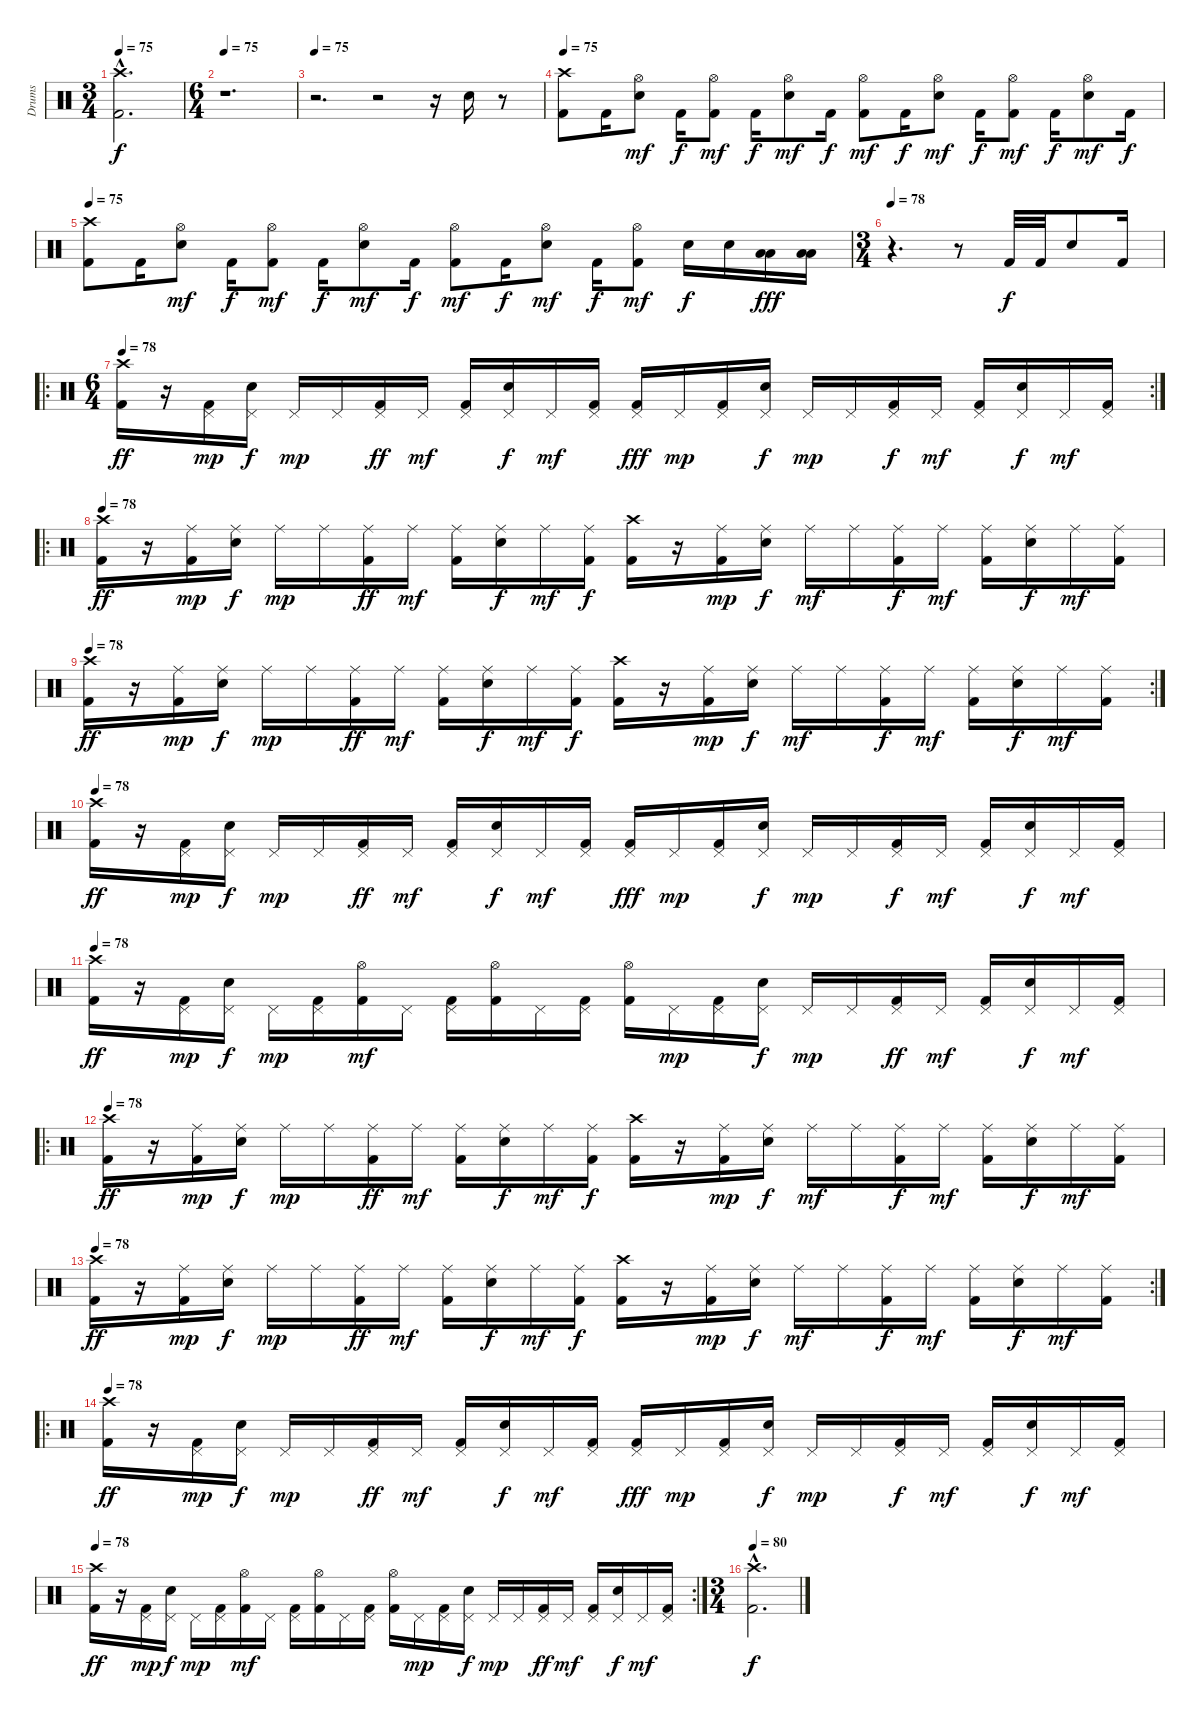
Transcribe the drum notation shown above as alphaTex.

\track ("Drums" "Drums") {instrument percussion}
\staff {score}
\articulation defaults
\ts (3 4)
\tempo 75
\clef neutral
\ks c
("Crash high (hit)" "Kick (hit) 2"{hac}).2{d dy f} |
\ts (6 4)
\tempo 75
r.1{d} |
\tempo 75
r.2{d} r.2 r.16 "Electric Snare (hit)".16 r.8 |
\tempo 75
("Crash high (hit)" "Kick (hit) 2").8 "Kick (hit) 2".16 ("Hi-Hat (open)" "Electric Snare (hit)").8{dy mf} "Kick (hit) 2".16{dy f} ("Hi-Hat (open)" "Kick (hit) 2").8{dy mf} "Kick (hit) 2".16{dy f} ("Hi-Hat (open)" "Electric Snare (hit)").8{dy mf} "Kick (hit) 2".16{dy f} ("Hi-Hat (open)" "Kick (hit) 2").8{dy mf} "Kick (hit) 2".16{dy f} ("Hi-Hat (open)" "Electric Snare (hit)").8{dy mf} "Kick (hit) 2".16{dy f} ("Hi-Hat (open)" "Kick (hit) 2").8{dy mf} "Kick (hit) 2".16{dy f} ("Hi-Hat (open)" "Electric Snare (hit)").8{dy mf} "Kick (hit) 2".16{dy f} |
\tempo 75
("Crash high (hit)" "Kick (hit) 2").8 "Kick (hit) 2".16 ("Hi-Hat (open)" "Electric Snare (hit)").8{dy mf} "Kick (hit) 2".16{dy f} ("Hi-Hat (open)" "Kick (hit) 2").8{dy mf} "Kick (hit) 2".16{dy f} ("Hi-Hat (open)" "Electric Snare (hit)").8{dy mf} "Kick (hit) 2".16{dy f} ("Hi-Hat (open)" "Kick (hit) 2").8{dy mf} "Kick (hit) 2".16{dy f} ("Hi-Hat (open)" "Electric Snare (hit)").8{dy mf} "Kick (hit) 2".16{dy f} ("Hi-Hat (open)" "Kick (hit) 2").8{dy mf} "Electric Snare (hit)".16{dy f} "Electric Snare (hit)".16 ("Low Tom (hit)" "Low Floor Tom (hit)").16{dy fff} ("Low Tom (hit)" "Low Floor Tom (hit)").16 |
\ts (3 4)
\tempo 78
r.4{d} r.8 "Kick (hit) 2".32{dy f} "Kick (hit) 2".32 "Electric Snare (hit)".8 "Kick (hit) 2".16 |
\ro
\rc 2
\ts (6 4)
\tempo 78
("Crash high (hit)" "Kick (hit) 2").16{dy ff} r.16 ("Pedal Hi-Hat (hit)" "Kick (hit) 2").16{dy mp} ("Pedal Hi-Hat (hit)" "Electric Snare (hit)").16{dy f} "Pedal Hi-Hat (hit)".16{dy mp} "Pedal Hi-Hat (hit)".16 ("Pedal Hi-Hat (hit)" "Kick (hit) 2").16{dy ff} "Pedal Hi-Hat (hit)".16{dy mf} ("Pedal Hi-Hat (hit)" "Kick (hit) 2").16 ("Pedal Hi-Hat (hit)" "Electric Snare (hit)").16{dy f} "Pedal Hi-Hat (hit)".16{dy mf} ("Pedal Hi-Hat (hit)" "Kick (hit) 2").16 ("Pedal Hi-Hat (hit)" "Kick (hit) 2").16{dy fff} "Pedal Hi-Hat (hit)".16{dy mp} ("Pedal Hi-Hat (hit)" "Kick (hit) 2").16 ("Pedal Hi-Hat (hit)" "Electric Snare (hit)").16{dy f} "Pedal Hi-Hat (hit)".16{dy mp} "Pedal Hi-Hat (hit)".16 ("Pedal Hi-Hat (hit)" "Kick (hit) 2").16{dy f} "Pedal Hi-Hat (hit)".16{dy mf} ("Pedal Hi-Hat (hit)" "Kick (hit) 2").16 ("Pedal Hi-Hat (hit)" "Electric Snare (hit)").16{dy f} "Pedal Hi-Hat (hit)".16{dy mf} ("Pedal Hi-Hat (hit)" "Kick (hit) 2").16 |
\ro
\tempo 78
("Crash high (hit)" "Kick (hit) 2").16{dy ff} r.16 ("Ride (middle)" "Kick (hit) 2").16{dy mp} ("Ride (middle)" "Electric Snare (hit)").16{dy f} "Ride (middle)".16{dy mp} "Ride (middle)".16 ("Ride (middle)" "Kick (hit) 2").16{dy ff} "Ride (middle)".16{dy mf} ("Ride (middle)" "Kick (hit) 2").16 ("Ride (middle)" "Electric Snare (hit)").16{dy f} "Ride (middle)".16{dy mf} ("Ride (middle)" "Kick (hit) 2").16{dy f} ("Crash high (hit)" "Kick (hit) 2").16 r.16 ("Ride (middle)" "Kick (hit) 2").16{dy mp} ("Ride (middle)" "Electric Snare (hit)").16{dy f} "Ride (middle)".16{dy mf} "Ride (middle)".16 ("Ride (middle)" "Kick (hit) 2").16{dy f} "Ride (middle)".16{dy mf} ("Ride (middle)" "Kick (hit) 2").16 ("Ride (middle)" "Electric Snare (hit)").16{dy f} "Ride (middle)".16{dy mf} ("Ride (middle)" "Kick (hit) 2").16 |
\rc 2
\tempo 78
("Crash high (hit)" "Kick (hit) 2").16{dy ff} r.16 ("Ride (middle)" "Kick (hit) 2").16{dy mp} ("Ride (middle)" "Electric Snare (hit)").16{dy f} "Ride (middle)".16{dy mp} "Ride (middle)".16 ("Ride (middle)" "Kick (hit) 2").16{dy ff} "Ride (middle)".16{dy mf} ("Ride (middle)" "Kick (hit) 2").16 ("Ride (middle)" "Electric Snare (hit)").16{dy f} "Ride (middle)".16{dy mf} ("Ride (middle)" "Kick (hit) 2").16{dy f} ("Crash high (hit)" "Kick (hit) 2").16 r.16 ("Ride (middle)" "Kick (hit) 2").16{dy mp} ("Ride (middle)" "Electric Snare (hit)").16{dy f} "Ride (middle)".16{dy mf} "Ride (middle)".16 ("Ride (middle)" "Kick (hit) 2").16{dy f} "Ride (middle)".16{dy mf} ("Ride (middle)" "Kick (hit) 2").16 ("Ride (middle)" "Electric Snare (hit)").16{dy f} "Ride (middle)".16{dy mf} ("Ride (middle)" "Kick (hit) 2").16 |
\tempo 78
("Crash high (hit)" "Kick (hit) 2").16{dy ff} r.16 ("Pedal Hi-Hat (hit)" "Kick (hit) 2").16{dy mp} ("Pedal Hi-Hat (hit)" "Electric Snare (hit)").16{dy f} "Pedal Hi-Hat (hit)".16{dy mp} "Pedal Hi-Hat (hit)".16 ("Pedal Hi-Hat (hit)" "Kick (hit) 2").16{dy ff} "Pedal Hi-Hat (hit)".16{dy mf} ("Pedal Hi-Hat (hit)" "Kick (hit) 2").16 ("Pedal Hi-Hat (hit)" "Electric Snare (hit)").16{dy f} "Pedal Hi-Hat (hit)".16{dy mf} ("Pedal Hi-Hat (hit)" "Kick (hit) 2").16 ("Pedal Hi-Hat (hit)" "Kick (hit) 2").16{dy fff} "Pedal Hi-Hat (hit)".16{dy mp} ("Pedal Hi-Hat (hit)" "Kick (hit) 2").16 ("Pedal Hi-Hat (hit)" "Electric Snare (hit)").16{dy f} "Pedal Hi-Hat (hit)".16{dy mp} "Pedal Hi-Hat (hit)".16 ("Pedal Hi-Hat (hit)" "Kick (hit) 2").16{dy f} "Pedal Hi-Hat (hit)".16{dy mf} ("Pedal Hi-Hat (hit)" "Kick (hit) 2").16 ("Pedal Hi-Hat (hit)" "Electric Snare (hit)").16{dy f} "Pedal Hi-Hat (hit)".16{dy mf} ("Pedal Hi-Hat (hit)" "Kick (hit) 2").16 |
\tempo 78
("Crash high (hit)" "Kick (hit) 2").16{dy ff} r.16 ("Pedal Hi-Hat (hit)" "Kick (hit) 2").16{dy mp} ("Pedal Hi-Hat (hit)" "Electric Snare (hit)").16{dy f} "Pedal Hi-Hat (hit)".16{dy mp} ("Pedal Hi-Hat (hit)" "Kick (hit) 2").16 ("Hi-Hat (open)" "Kick (hit) 2").16{dy mf} "Pedal Hi-Hat (hit)".16 ("Pedal Hi-Hat (hit)" "Kick (hit) 2").16 ("Hi-Hat (open)" "Kick (hit) 2").16 "Pedal Hi-Hat (hit)".16 ("Pedal Hi-Hat (hit)" "Kick (hit) 2").16 ("Hi-Hat (open)" "Kick (hit) 2").16 "Pedal Hi-Hat (hit)".16{dy mp} ("Pedal Hi-Hat (hit)" "Kick (hit) 2").16 ("Pedal Hi-Hat (hit)" "Electric Snare (hit)").16{dy f} "Pedal Hi-Hat (hit)".16{dy mp} "Pedal Hi-Hat (hit)".16 ("Pedal Hi-Hat (hit)" "Kick (hit) 2").16{dy ff} "Pedal Hi-Hat (hit)".16{dy mf} ("Pedal Hi-Hat (hit)" "Kick (hit) 2").16 ("Pedal Hi-Hat (hit)" "Electric Snare (hit)").16{dy f} "Pedal Hi-Hat (hit)".16{dy mf} ("Pedal Hi-Hat (hit)" "Kick (hit) 2").16 |
\ro
\tempo 78
("Crash high (hit)" "Kick (hit) 2").16{dy ff} r.16 ("Ride (middle)" "Kick (hit) 2").16{dy mp} ("Ride (middle)" "Electric Snare (hit)").16{dy f} "Ride (middle)".16{dy mp} "Ride (middle)".16 ("Ride (middle)" "Kick (hit) 2").16{dy ff} "Ride (middle)".16{dy mf} ("Ride (middle)" "Kick (hit) 2").16 ("Ride (middle)" "Electric Snare (hit)").16{dy f} "Ride (middle)".16{dy mf} ("Ride (middle)" "Kick (hit) 2").16{dy f} ("Crash high (hit)" "Kick (hit) 2").16 r.16 ("Ride (middle)" "Kick (hit) 2").16{dy mp} ("Ride (middle)" "Electric Snare (hit)").16{dy f} "Ride (middle)".16{dy mf} "Ride (middle)".16 ("Ride (middle)" "Kick (hit) 2").16{dy f} "Ride (middle)".16{dy mf} ("Ride (middle)" "Kick (hit) 2").16 ("Ride (middle)" "Electric Snare (hit)").16{dy f} "Ride (middle)".16{dy mf} ("Ride (middle)" "Kick (hit) 2").16 |
\rc 2
\tempo 78
("Crash high (hit)" "Kick (hit) 2").16{dy ff} r.16 ("Ride (middle)" "Kick (hit) 2").16{dy mp} ("Ride (middle)" "Electric Snare (hit)").16{dy f} "Ride (middle)".16{dy mp} "Ride (middle)".16 ("Ride (middle)" "Kick (hit) 2").16{dy ff} "Ride (middle)".16{dy mf} ("Ride (middle)" "Kick (hit) 2").16 ("Ride (middle)" "Electric Snare (hit)").16{dy f} "Ride (middle)".16{dy mf} ("Ride (middle)" "Kick (hit) 2").16{dy f} ("Crash high (hit)" "Kick (hit) 2").16 r.16 ("Ride (middle)" "Kick (hit) 2").16{dy mp} ("Ride (middle)" "Electric Snare (hit)").16{dy f} "Ride (middle)".16{dy mf} "Ride (middle)".16 ("Ride (middle)" "Kick (hit) 2").16{dy f} "Ride (middle)".16{dy mf} ("Ride (middle)" "Kick (hit) 2").16 ("Ride (middle)" "Electric Snare (hit)").16{dy f} "Ride (middle)".16{dy mf} ("Ride (middle)" "Kick (hit) 2").16 |
\ro
\tempo 78
("Crash high (hit)" "Kick (hit) 2").16{dy ff} r.16 ("Pedal Hi-Hat (hit)" "Kick (hit) 2").16{dy mp} ("Pedal Hi-Hat (hit)" "Electric Snare (hit)").16{dy f} "Pedal Hi-Hat (hit)".16{dy mp} "Pedal Hi-Hat (hit)".16 ("Pedal Hi-Hat (hit)" "Kick (hit) 2").16{dy ff} "Pedal Hi-Hat (hit)".16{dy mf} ("Pedal Hi-Hat (hit)" "Kick (hit) 2").16 ("Pedal Hi-Hat (hit)" "Electric Snare (hit)").16{dy f} "Pedal Hi-Hat (hit)".16{dy mf} ("Pedal Hi-Hat (hit)" "Kick (hit) 2").16 ("Pedal Hi-Hat (hit)" "Kick (hit) 2").16{dy fff} "Pedal Hi-Hat (hit)".16{dy mp} ("Pedal Hi-Hat (hit)" "Kick (hit) 2").16 ("Pedal Hi-Hat (hit)" "Electric Snare (hit)").16{dy f} "Pedal Hi-Hat (hit)".16{dy mp} "Pedal Hi-Hat (hit)".16 ("Pedal Hi-Hat (hit)" "Kick (hit) 2").16{dy f} "Pedal Hi-Hat (hit)".16{dy mf} ("Pedal Hi-Hat (hit)" "Kick (hit) 2").16 ("Pedal Hi-Hat (hit)" "Electric Snare (hit)").16{dy f} "Pedal Hi-Hat (hit)".16{dy mf} ("Pedal Hi-Hat (hit)" "Kick (hit) 2").16 |
\rc 2
\tempo 78
("Crash high (hit)" "Kick (hit) 2").16{dy ff} r.16 ("Pedal Hi-Hat (hit)" "Kick (hit) 2").16{dy mp} ("Pedal Hi-Hat (hit)" "Electric Snare (hit)").16{dy f} "Pedal Hi-Hat (hit)".16{dy mp} ("Pedal Hi-Hat (hit)" "Kick (hit) 2").16 ("Hi-Hat (open)" "Kick (hit) 2").16{dy mf} "Pedal Hi-Hat (hit)".16 ("Pedal Hi-Hat (hit)" "Kick (hit) 2").16 ("Hi-Hat (open)" "Kick (hit) 2").16 "Pedal Hi-Hat (hit)".16 ("Pedal Hi-Hat (hit)" "Kick (hit) 2").16 ("Hi-Hat (open)" "Kick (hit) 2").16 "Pedal Hi-Hat (hit)".16{dy mp} ("Pedal Hi-Hat (hit)" "Kick (hit) 2").16 ("Pedal Hi-Hat (hit)" "Electric Snare (hit)").16{dy f} "Pedal Hi-Hat (hit)".16{dy mp} "Pedal Hi-Hat (hit)".16 ("Pedal Hi-Hat (hit)" "Kick (hit) 2").16{dy ff} "Pedal Hi-Hat (hit)".16{dy mf} ("Pedal Hi-Hat (hit)" "Kick (hit) 2").16 ("Pedal Hi-Hat (hit)" "Electric Snare (hit)").16{dy f} "Pedal Hi-Hat (hit)".16{dy mf} ("Pedal Hi-Hat (hit)" "Kick (hit) 2").16 |
\ts (3 4)
\tempo 80
("Crash high (hit)"{hac} "Kick (hit) 2"{hac}).2{d dy f}
